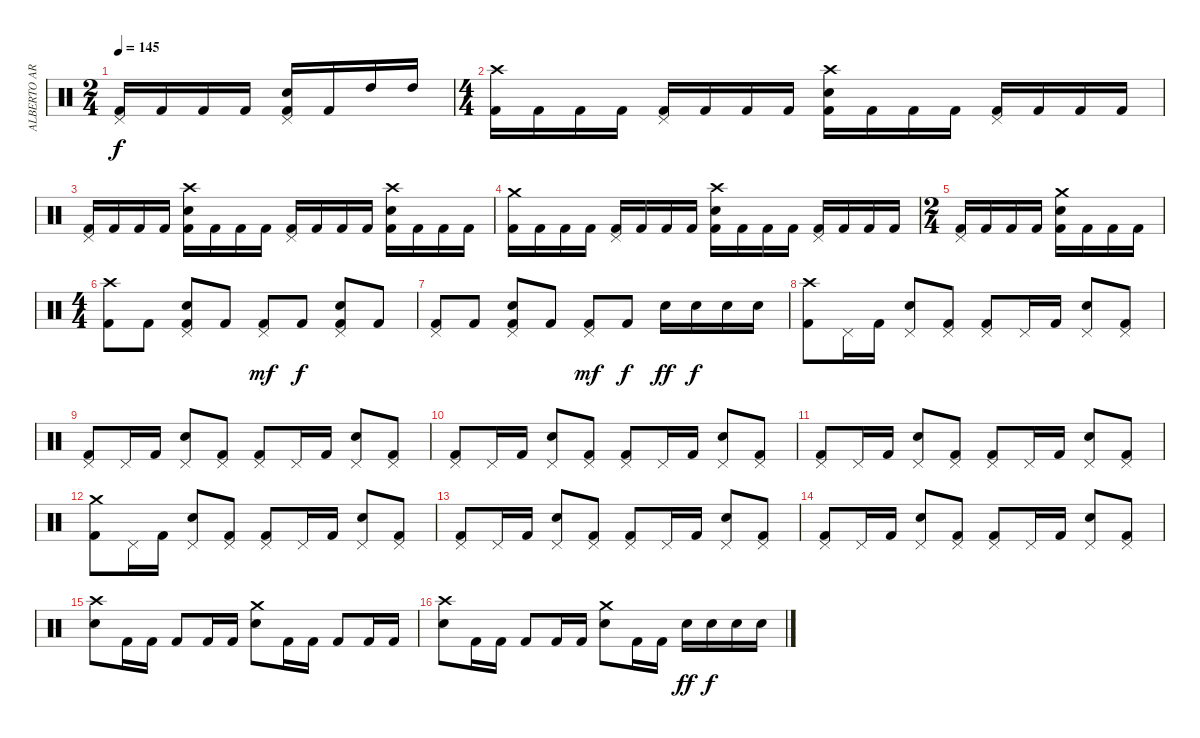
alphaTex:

\track ("ALBERTO ARDINES" "ALBERTO AR") {instrument percussion}
\staff {score}
\articulation defaults
\ts (2 4)
\tempo 145
\clef neutral
\ks c
("Pedal Hi-Hat (hit)" "Kick (hit) 2").16{dy f} "Kick (hit) 2".16 "Kick (hit) 2".16 "Kick (hit) 2".16 ("Pedal Hi-Hat (hit)" "Electric Snare (hit)" "Kick (hit) 2").16 "Kick (hit) 2".16 "High Tom (hit)".16 "High Tom (hit)".16 |
\ts (4 4)
("Crash high (hit)" "Kick (hit) 2").16 "Kick (hit) 2".16 "Kick (hit) 2".16 "Kick (hit) 2".16 ("Pedal Hi-Hat (hit)" "Kick (hit) 2").16 "Kick (hit) 2".16 "Kick (hit) 2".16 "Kick (hit) 2".16 ("Crash high (hit)" "Electric Snare (hit)" "Kick (hit) 2").16 "Kick (hit) 2".16 "Kick (hit) 2".16 "Kick (hit) 2".16 ("Pedal Hi-Hat (hit)" "Kick (hit) 2").16 "Kick (hit) 2".16 "Kick (hit) 2".16 "Kick (hit) 2".16 |
("Pedal Hi-Hat (hit)" "Kick (hit) 2").16 "Kick (hit) 2".16 "Kick (hit) 2".16 "Kick (hit) 2".16 ("Crash high (hit)" "Electric Snare (hit)" "Kick (hit) 2").16 "Kick (hit) 2".16 "Kick (hit) 2".16 "Kick (hit) 2".16 ("Pedal Hi-Hat (hit)" "Kick (hit) 2").16 "Kick (hit) 2".16 "Kick (hit) 2".16 "Kick (hit) 2".16 ("Crash high (hit)" "Electric Snare (hit)" "Kick (hit) 2").16 "Kick (hit) 2".16 "Kick (hit) 2".16 "Kick (hit) 2".16 |
("Crash medium (hit)" "Kick (hit) 2").16 "Kick (hit) 2".16 "Kick (hit) 2".16 "Kick (hit) 2".16 ("Pedal Hi-Hat (hit)" "Kick (hit) 2").16 "Kick (hit) 2".16 "Kick (hit) 2".16 "Kick (hit) 2".16 ("Crash high (hit)" "Electric Snare (hit)" "Kick (hit) 2").16 "Kick (hit) 2".16 "Kick (hit) 2".16 "Kick (hit) 2".16 ("Pedal Hi-Hat (hit)" "Kick (hit) 2").16 "Kick (hit) 2".16 "Kick (hit) 2".16 "Kick (hit) 2".16 |
\ts (2 4)
("Pedal Hi-Hat (hit)" "Kick (hit) 2").16 "Kick (hit) 2".16 "Kick (hit) 2".16 "Kick (hit) 2".16 ("Crash medium (hit)" "Electric Snare (hit)" "Kick (hit) 2").16 "Kick (hit) 2".16 "Kick (hit) 2".16 "Kick (hit) 2".16 |
\ts (4 4)
("Crash high (hit)" "Kick (hit) 2").8 "Kick (hit) 2".8 ("Pedal Hi-Hat (hit)" "Electric Snare (hit)" "Kick (hit) 2").8 "Kick (hit) 2".8 ("Pedal Hi-Hat (hit)" "Kick (hit) 2").8{dy mf} "Kick (hit) 2".8{dy f} ("Pedal Hi-Hat (hit)" "Electric Snare (hit)" "Kick (hit) 2").8 "Kick (hit) 2".8 |
("Pedal Hi-Hat (hit)" "Kick (hit) 2").8 "Kick (hit) 2".8 ("Pedal Hi-Hat (hit)" "Electric Snare (hit)" "Kick (hit) 2").8 "Kick (hit) 2".8 ("Pedal Hi-Hat (hit)" "Kick (hit) 2").8{dy mf} "Kick (hit) 2".8{dy f} "Electric Snare (hit)".16{dy ff} "Electric Snare (hit)".16{dy f} "Electric Snare (hit)".16 "Electric Snare (hit)".16 |
("Crash high (hit)" "Kick (hit) 2").8 "Pedal Hi-Hat (hit)".16 "Kick (hit) 2".16 ("Pedal Hi-Hat (hit)" "Electric Snare (hit)").8 ("Pedal Hi-Hat (hit)" "Kick (hit) 2").8 ("Pedal Hi-Hat (hit)" "Kick (hit) 2").8 "Pedal Hi-Hat (hit)".16 "Kick (hit) 2".16 ("Pedal Hi-Hat (hit)" "Electric Snare (hit)").8 ("Pedal Hi-Hat (hit)" "Kick (hit) 2").8 |
("Pedal Hi-Hat (hit)" "Kick (hit) 2").8 "Pedal Hi-Hat (hit)".16 "Kick (hit) 2".16 ("Pedal Hi-Hat (hit)" "Electric Snare (hit)").8 ("Pedal Hi-Hat (hit)" "Kick (hit) 2").8 ("Pedal Hi-Hat (hit)" "Kick (hit) 2").8 "Pedal Hi-Hat (hit)".16 "Kick (hit) 2".16 ("Pedal Hi-Hat (hit)" "Electric Snare (hit)").8 ("Pedal Hi-Hat (hit)" "Kick (hit) 2").8 |
("Pedal Hi-Hat (hit)" "Kick (hit) 2").8 "Pedal Hi-Hat (hit)".16 "Kick (hit) 2".16 ("Pedal Hi-Hat (hit)" "Electric Snare (hit)").8 ("Pedal Hi-Hat (hit)" "Kick (hit) 2").8 ("Pedal Hi-Hat (hit)" "Kick (hit) 2").8 "Pedal Hi-Hat (hit)".16 "Kick (hit) 2".16 ("Pedal Hi-Hat (hit)" "Electric Snare (hit)").8 ("Pedal Hi-Hat (hit)" "Kick (hit) 2").8 |
("Pedal Hi-Hat (hit)" "Kick (hit) 2").8 "Pedal Hi-Hat (hit)".16 "Kick (hit) 2".16 ("Pedal Hi-Hat (hit)" "Electric Snare (hit)").8 ("Pedal Hi-Hat (hit)" "Kick (hit) 2").8 ("Pedal Hi-Hat (hit)" "Kick (hit) 2").8 "Pedal Hi-Hat (hit)".16 "Kick (hit) 2".16 ("Pedal Hi-Hat (hit)" "Electric Snare (hit)").8 ("Pedal Hi-Hat (hit)" "Kick (hit) 2").8 |
("Crash medium (hit)" "Kick (hit) 2").8 "Pedal Hi-Hat (hit)".16 "Kick (hit) 2".16 ("Pedal Hi-Hat (hit)" "Electric Snare (hit)").8 ("Pedal Hi-Hat (hit)" "Kick (hit) 2").8 ("Pedal Hi-Hat (hit)" "Kick (hit) 2").8 "Pedal Hi-Hat (hit)".16 "Kick (hit) 2".16 ("Pedal Hi-Hat (hit)" "Electric Snare (hit)").8 ("Pedal Hi-Hat (hit)" "Kick (hit) 2").8 |
("Pedal Hi-Hat (hit)" "Kick (hit) 2").8 "Pedal Hi-Hat (hit)".16 "Kick (hit) 2".16 ("Pedal Hi-Hat (hit)" "Electric Snare (hit)").8 ("Pedal Hi-Hat (hit)" "Kick (hit) 2").8 ("Pedal Hi-Hat (hit)" "Kick (hit) 2").8 "Pedal Hi-Hat (hit)".16 "Kick (hit) 2".16 ("Pedal Hi-Hat (hit)" "Electric Snare (hit)").8 ("Pedal Hi-Hat (hit)" "Kick (hit) 2").8 |
("Pedal Hi-Hat (hit)" "Kick (hit) 2").8 "Pedal Hi-Hat (hit)".16 "Kick (hit) 2".16 ("Pedal Hi-Hat (hit)" "Electric Snare (hit)").8 ("Pedal Hi-Hat (hit)" "Kick (hit) 2").8 ("Pedal Hi-Hat (hit)" "Kick (hit) 2").8 "Pedal Hi-Hat (hit)".16 "Kick (hit) 2".16 ("Pedal Hi-Hat (hit)" "Electric Snare (hit)").8 ("Pedal Hi-Hat (hit)" "Kick (hit) 2").8 |
("Crash high (hit)" "Electric Snare (hit)").8 "Kick (hit) 2".16 "Kick (hit) 2".16 "Kick (hit) 2".8 "Kick (hit) 2".16 "Kick (hit) 2".16 ("Crash medium (hit)" "Electric Snare (hit)").8 "Kick (hit) 2".16 "Kick (hit) 2".16 "Kick (hit) 2".8 "Kick (hit) 2".16 "Kick (hit) 2".16 |
("Crash high (hit)" "Electric Snare (hit)").8 "Kick (hit) 2".16 "Kick (hit) 2".16 "Kick (hit) 2".8 "Kick (hit) 2".16 "Kick (hit) 2".16 ("Crash medium (hit)" "Electric Snare (hit)").8 "Kick (hit) 2".16 "Kick (hit) 2".16 "Electric Snare (hit)".16{dy ff} "Electric Snare (hit)".16{dy f} "Electric Snare (hit)".16 "Electric Snare (hit)".16
